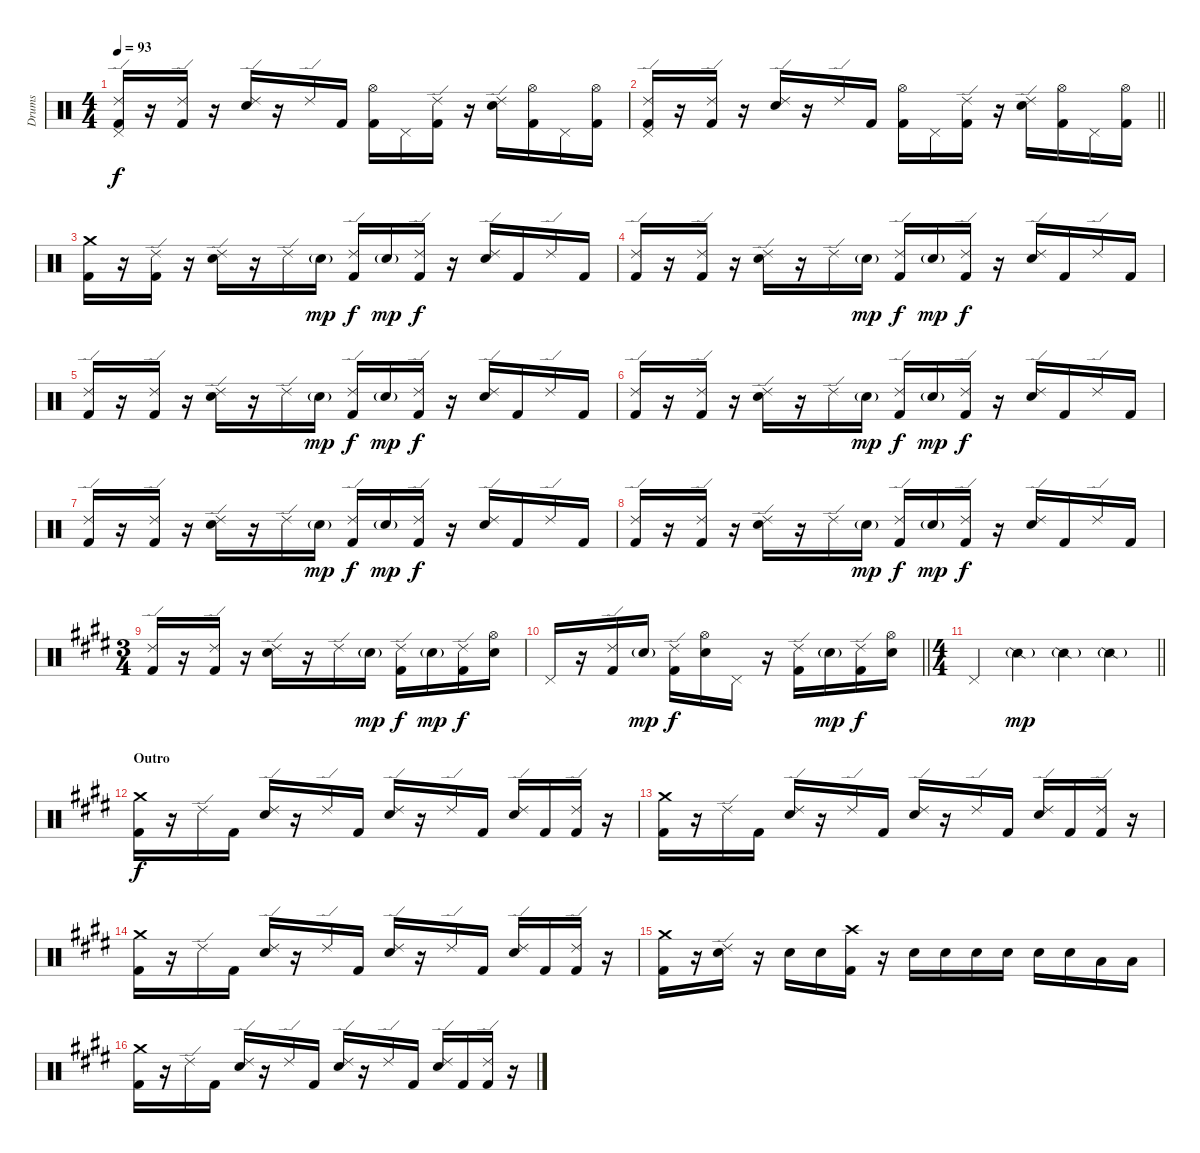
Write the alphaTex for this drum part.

\track ("Drums" "Drums") {instrument percussion}
\staff {score}
\articulation defaults
\ts (4 4)
\tempo 93
\clef neutral
\ks c
("Ride (edge) 2" "Pedal Hi-Hat (hit)" "Kick (hit) 2").16{dy f} r.16 ("Ride (edge) 2" "Kick (hit) 2").16 r.16 ("Ride (edge) 2" "Snare (hit) 2").16 r.16 "Ride (edge) 2".16 "Kick (hit) 2".16 ("Hi-Hat (open)" "Kick (hit) 2").16 "Pedal Hi-Hat (hit)".16 ("Ride (edge) 2" "Kick (hit) 2").16 r.16 ("Ride (edge) 2" "Snare (hit) 2").16 ("Hi-Hat (open)" "Kick (hit) 2").16 "Pedal Hi-Hat (hit)".16 ("Hi-Hat (open)" "Kick (hit) 2").16 |
\barLineRight lightlight
("Ride (edge) 2" "Pedal Hi-Hat (hit)" "Kick (hit) 2").16 r.16 ("Ride (edge) 2" "Kick (hit) 2").16 r.16 ("Ride (edge) 2" "Snare (hit) 2").16 r.16 "Ride (edge) 2".16 "Kick (hit) 2".16 ("Hi-Hat (open)" "Kick (hit) 2").16 "Pedal Hi-Hat (hit)".16 ("Ride (edge) 2" "Kick (hit) 2").16 r.16 ("Ride (edge) 2" "Snare (hit) 2").16 ("Hi-Hat (open)" "Kick (hit) 2").16 "Pedal Hi-Hat (hit)".16 ("Hi-Hat (open)" "Kick (hit) 2").16 |
("Crash medium (hit)" "Kick (hit) 2").16 r.16 ("Ride (edge) 2" "Kick (hit) 2").16 r.16 ("Ride (edge) 2" "Snare (hit) 2").16 r.16 "Ride (edge) 2".16 "Snare (hit) 2"{g}.16{dy mp} ("Ride (edge) 2" "Kick (hit) 2").16{dy f} "Snare (hit) 2"{g}.16{dy mp} ("Ride (edge) 2" "Kick (hit) 2").16{dy f} r.16 ("Ride (edge) 2" "Snare (hit) 2").16 "Kick (hit) 2".16 "Ride (edge) 2".16 "Kick (hit) 2".16 |
("Ride (edge) 2" "Kick (hit) 2").16 r.16 ("Ride (edge) 2" "Kick (hit) 2").16 r.16 ("Ride (edge) 2" "Snare (hit) 2").16 r.16 "Ride (edge) 2".16 "Snare (hit) 2"{g}.16{dy mp} ("Ride (edge) 2" "Kick (hit) 2").16{dy f} "Snare (hit) 2"{g}.16{dy mp} ("Ride (edge) 2" "Kick (hit) 2").16{dy f} r.16 ("Ride (edge) 2" "Snare (hit) 2").16 "Kick (hit) 2".16 "Ride (edge) 2".16 "Kick (hit) 2".16 |
("Ride (edge) 2" "Kick (hit) 2").16 r.16 ("Ride (edge) 2" "Kick (hit) 2").16 r.16 ("Ride (edge) 2" "Snare (hit) 2").16 r.16 "Ride (edge) 2".16 "Snare (hit) 2"{g}.16{dy mp} ("Ride (edge) 2" "Kick (hit) 2").16{dy f} "Snare (hit) 2"{g}.16{dy mp} ("Ride (edge) 2" "Kick (hit) 2").16{dy f} r.16 ("Ride (edge) 2" "Snare (hit) 2").16 "Kick (hit) 2".16 "Ride (edge) 2".16 "Kick (hit) 2".16 |
("Ride (edge) 2" "Kick (hit) 2").16 r.16 ("Ride (edge) 2" "Kick (hit) 2").16 r.16 ("Ride (edge) 2" "Snare (hit) 2").16 r.16 "Ride (edge) 2".16 "Snare (hit) 2"{g}.16{dy mp} ("Ride (edge) 2" "Kick (hit) 2").16{dy f} "Snare (hit) 2"{g}.16{dy mp} ("Ride (edge) 2" "Kick (hit) 2").16{dy f} r.16 ("Ride (edge) 2" "Snare (hit) 2").16 "Kick (hit) 2".16 "Ride (edge) 2".16 "Kick (hit) 2".16 |
("Ride (edge) 2" "Kick (hit) 2").16 r.16 ("Ride (edge) 2" "Kick (hit) 2").16 r.16 ("Ride (edge) 2" "Snare (hit) 2").16 r.16 "Ride (edge) 2".16 "Snare (hit) 2"{g}.16{dy mp} ("Ride (edge) 2" "Kick (hit) 2").16{dy f} "Snare (hit) 2"{g}.16{dy mp} ("Ride (edge) 2" "Kick (hit) 2").16{dy f} r.16 ("Ride (edge) 2" "Snare (hit) 2").16 "Kick (hit) 2".16 "Ride (edge) 2".16 "Kick (hit) 2".16 |
("Ride (edge) 2" "Kick (hit) 2").16 r.16 ("Ride (edge) 2" "Kick (hit) 2").16 r.16 ("Ride (edge) 2" "Snare (hit) 2").16 r.16 "Ride (edge) 2".16 "Snare (hit) 2"{g}.16{dy mp} ("Ride (edge) 2" "Kick (hit) 2").16{dy f} "Snare (hit) 2"{g}.16{dy mp} ("Ride (edge) 2" "Kick (hit) 2").16{dy f} r.16 ("Ride (edge) 2" "Snare (hit) 2").16 "Kick (hit) 2".16 "Ride (edge) 2".16 "Kick (hit) 2".16 |
\ts (3 4)
\ks e
("Ride (edge) 2" "Kick (hit) 2").16 r.16 ("Ride (edge) 2" "Kick (hit) 2").16 r.16 ("Ride (edge) 2" "Snare (hit) 2").16 r.16 "Ride (edge) 2".16 "Snare (hit) 2"{g}.16{dy mp} ("Ride (edge) 2" "Kick (hit) 2").16{dy f} "Snare (hit) 2"{g}.16{dy mp} ("Ride (edge) 2" "Kick (hit) 2").16{dy f} ("Hi-Hat (open)" "Snare (hit) 2").16 |
\barLineRight lightlight "Pedal Hi-Hat (hit)".16
r.16 ("Ride (edge) 2" "Kick (hit) 2").16 "Snare (hit) 2"{g}.16{dy mp} ("Ride (edge) 2" "Kick (hit) 2").16{dy f} ("Hi-Hat (open)" "Snare (hit) 2").16 "Pedal Hi-Hat (hit)".16 r.16 ("Ride (edge) 2" "Kick (hit) 2").16 "Snare (hit) 2"{g}.16{dy mp} ("Ride (edge) 2" "Kick (hit) 2").16{dy f} ("Hi-Hat (open)" "Snare (hit) 2").16 |
\ts (4 4)
\barLineRight lightlight "Pedal Hi-Hat (hit)".4 "Snare (side stick) 2"{g}.4{dy mp} "Snare (side stick) 2"{g}.4 "Snare (side stick) 2"{g}.4
|
\section ("" "Outro")
("Crash medium (hit)" "Kick (hit) 2").16{dy f} r.16 "Ride (edge) 2".16 "Kick (hit) 2".16 ("Ride (edge) 2" "Snare (hit) 2").16 r.16 "Ride (edge) 2".16 "Kick (hit) 2".16 ("Ride (edge) 2" "Snare (hit) 2").16 r.16 "Ride (edge) 2".16 "Kick (hit) 2".16 ("Ride (edge) 2" "Snare (hit) 2").16 "Kick (hit) 2".16 ("Ride (edge) 2" "Kick (hit) 2").16 r.16 |
("Crash medium (hit)" "Kick (hit) 2").16 r.16 "Ride (edge) 2".16 "Kick (hit) 2".16 ("Ride (edge) 2" "Snare (hit) 2").16 r.16 "Ride (edge) 2".16 "Kick (hit) 2".16 ("Ride (edge) 2" "Snare (hit) 2").16 r.16 "Ride (edge) 2".16 "Kick (hit) 2".16 ("Ride (edge) 2" "Snare (hit) 2").16 "Kick (hit) 2".16 ("Ride (edge) 2" "Kick (hit) 2").16 r.16 |
("Crash medium (hit)" "Kick (hit) 2").16 r.16 "Ride (edge) 2".16 "Kick (hit) 2".16 ("Ride (edge) 2" "Snare (hit) 2").16 r.16 "Ride (edge) 2".16 "Kick (hit) 2".16 ("Ride (edge) 2" "Snare (hit) 2").16 r.16 "Ride (edge) 2".16 "Kick (hit) 2".16 ("Ride (edge) 2" "Snare (hit) 2").16 "Kick (hit) 2".16 ("Ride (edge) 2" "Kick (hit) 2").16 r.16 |
("Crash medium (hit)" "Kick (hit) 2").16 r.16 ("Ride (edge) 2" "Snare (hit) 2").16 r.16 "Snare (hit) 2".16 "Snare (hit) 2".16 ("Crash high (hit)" "Kick (hit) 2").16 r.16 "Snare (hit) 2".16 "Snare (hit) 2".16 "Snare (hit) 2".16 "Snare (hit) 2".16 "Snare (hit) 2".16 "Snare (hit) 2".16 "Low Tom (hit)".16 "Low Tom (hit)".16 |
("Crash medium (hit)" "Kick (hit) 2").16 r.16 "Ride (edge) 2".16 "Kick (hit) 2".16 ("Ride (edge) 2" "Snare (hit) 2").16 r.16 "Ride (edge) 2".16 "Kick (hit) 2".16 ("Ride (edge) 2" "Snare (hit) 2").16 r.16 "Ride (edge) 2".16 "Kick (hit) 2".16 ("Ride (edge) 2" "Snare (hit) 2").16 "Kick (hit) 2".16 ("Ride (edge) 2" "Kick (hit) 2").16 r.16
